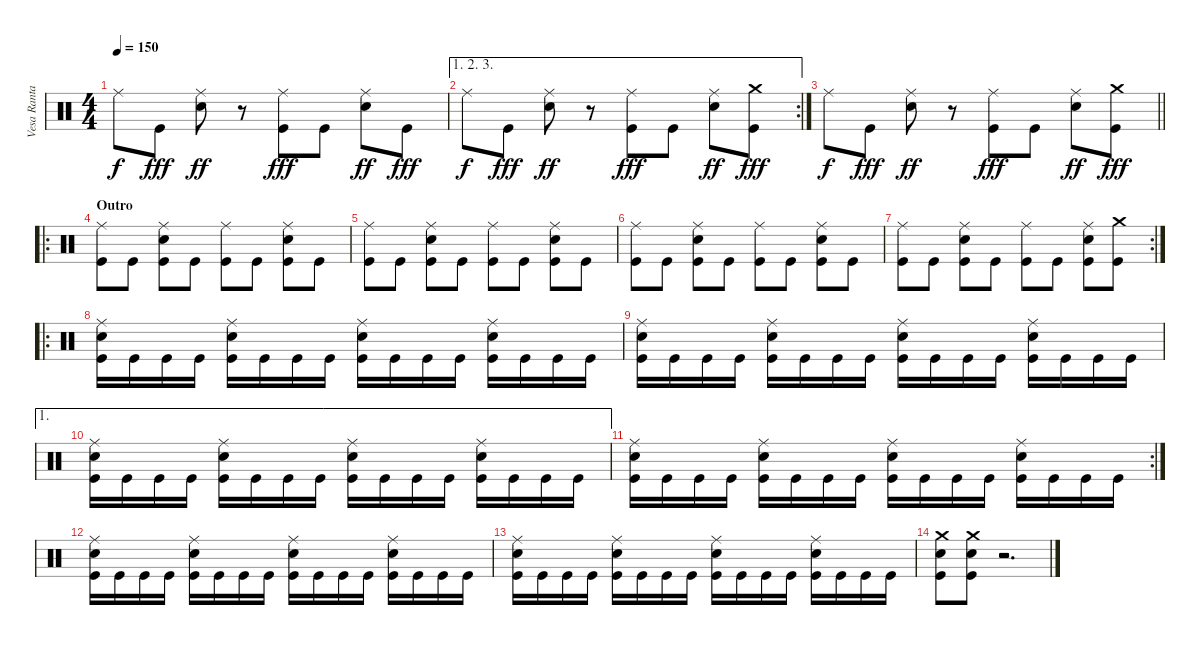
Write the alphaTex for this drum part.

\track ("Vesa Ranta" "Vesa Ranta") {instrument percussion}
\staff {score}
\articulation defaults
\ts (4 4)
\tempo 150
\clef neutral
\ks c "Ride (middle)".8{dy f} "Kick (hit)".8{dy fff}
("Ride (middle)" "Snare (hit) 2").8{dy ff} r.8 ("Ride (middle)" "Kick (hit)").8{dy fff} "Kick (hit)".8 ("Ride (middle)" "Snare (hit) 2").8{dy ff} "Kick (hit)".8{dy fff} |
\ae (1 2 3)
\rc 2 "Ride (middle)".8{dy f} "Kick (hit)".8{dy fff}
("Ride (middle)" "Snare (hit) 2").8{dy ff} r.8 ("Ride (middle)" "Kick (hit)").8{dy fff} "Kick (hit)".8 ("Ride (middle)" "Snare (hit) 2").8{dy ff} ("Crash medium (hit)" "Kick (hit)").8{dy fff} |
\barLineRight lightlight "Ride (middle)".8{dy f} "Kick (hit)".8{dy fff}
("Ride (middle)" "Snare (hit) 2").8{dy ff} r.8 ("Ride (middle)" "Kick (hit)").8{dy fff} "Kick (hit)".8 ("Ride (middle)" "Snare (hit) 2").8{dy ff} ("Crash medium (hit)" "Kick (hit)").8{dy fff} |
\ro
\section ("" "Outro")
("Ride (middle)" "Kick (hit)").8 "Kick (hit)".8 ("Ride (middle)" "Snare (hit) 2" "Kick (hit)").8 "Kick (hit)".8 ("Ride (middle)" "Kick (hit)").8 "Kick (hit)".8 ("Ride (middle)" "Snare (hit) 2" "Kick (hit)").8 "Kick (hit)".8 |
("Ride (middle)" "Kick (hit)").8 "Kick (hit)".8 ("Ride (middle)" "Snare (hit) 2" "Kick (hit)").8 "Kick (hit)".8 ("Ride (middle)" "Kick (hit)").8 "Kick (hit)".8 ("Ride (middle)" "Snare (hit) 2" "Kick (hit)").8 "Kick (hit)".8 |
("Ride (middle)" "Kick (hit)").8 "Kick (hit)".8 ("Ride (middle)" "Snare (hit) 2" "Kick (hit)").8 "Kick (hit)".8 ("Ride (middle)" "Kick (hit)").8 "Kick (hit)".8 ("Ride (middle)" "Snare (hit) 2" "Kick (hit)").8 "Kick (hit)".8 |
\rc 2
("Ride (middle)" "Kick (hit)").8 "Kick (hit)".8 ("Ride (middle)" "Snare (hit) 2" "Kick (hit)").8 "Kick (hit)".8 ("Ride (middle)" "Kick (hit)").8 "Kick (hit)".8 ("Ride (middle)" "Snare (hit) 2" "Kick (hit)").8 ("Crash medium (hit)" "Kick (hit)").8 |
\ro
("Ride (middle)" "Snare (hit) 2" "Kick (hit)").16 "Kick (hit)".16 "Kick (hit)".16 "Kick (hit)".16 ("Ride (middle)" "Snare (hit) 2" "Kick (hit)").16 "Kick (hit)".16 "Kick (hit)".16 "Kick (hit)".16 ("Ride (middle)" "Snare (hit) 2" "Kick (hit)").16 "Kick (hit)".16 "Kick (hit)".16 "Kick (hit)".16 ("Ride (middle)" "Snare (hit) 2" "Kick (hit)").16 "Kick (hit)".16 "Kick (hit)".16 "Kick (hit)".16 |
("Ride (middle)" "Snare (hit) 2" "Kick (hit)").16 "Kick (hit)".16 "Kick (hit)".16 "Kick (hit)".16 ("Ride (middle)" "Snare (hit) 2" "Kick (hit)").16 "Kick (hit)".16 "Kick (hit)".16 "Kick (hit)".16 ("Ride (middle)" "Snare (hit) 2" "Kick (hit)").16 "Kick (hit)".16 "Kick (hit)".16 "Kick (hit)".16 ("Ride (middle)" "Snare (hit) 2" "Kick (hit)").16 "Kick (hit)".16 "Kick (hit)".16 "Kick (hit)".16 |
\ae 1
("Ride (middle)" "Snare (hit) 2" "Kick (hit)").16 "Kick (hit)".16 "Kick (hit)".16 "Kick (hit)".16 ("Ride (middle)" "Snare (hit) 2" "Kick (hit)").16 "Kick (hit)".16 "Kick (hit)".16 "Kick (hit)".16 ("Ride (middle)" "Snare (hit) 2" "Kick (hit)").16 "Kick (hit)".16 "Kick (hit)".16 "Kick (hit)".16 ("Ride (middle)" "Snare (hit) 2" "Kick (hit)").16 "Kick (hit)".16 "Kick (hit)".16 "Kick (hit)".16 |
\rc 2
("Ride (middle)" "Snare (hit) 2" "Kick (hit)").16 "Kick (hit)".16 "Kick (hit)".16 "Kick (hit)".16 ("Ride (middle)" "Snare (hit) 2" "Kick (hit)").16 "Kick (hit)".16 "Kick (hit)".16 "Kick (hit)".16 ("Ride (middle)" "Snare (hit) 2" "Kick (hit)").16 "Kick (hit)".16 "Kick (hit)".16 "Kick (hit)".16 ("Ride (middle)" "Snare (hit) 2" "Kick (hit)").16 "Kick (hit)".16 "Kick (hit)".16 "Kick (hit)".16 |
("Ride (middle)" "Snare (hit) 2" "Kick (hit)").16 "Kick (hit)".16 "Kick (hit)".16 "Kick (hit)".16 ("Ride (middle)" "Snare (hit) 2" "Kick (hit)").16 "Kick (hit)".16 "Kick (hit)".16 "Kick (hit)".16 ("Ride (middle)" "Snare (hit) 2" "Kick (hit)").16 "Kick (hit)".16 "Kick (hit)".16 "Kick (hit)".16 ("Ride (middle)" "Snare (hit) 2" "Kick (hit)").16 "Kick (hit)".16 "Kick (hit)".16 "Kick (hit)".16 |
("Ride (middle)" "Snare (hit) 2" "Kick (hit)").16 "Kick (hit)".16 "Kick (hit)".16 "Kick (hit)".16 ("Ride (middle)" "Snare (hit) 2" "Kick (hit)").16 "Kick (hit)".16 "Kick (hit)".16 "Kick (hit)".16 ("Ride (middle)" "Snare (hit) 2" "Kick (hit)").16 "Kick (hit)".16 "Kick (hit)".16 "Kick (hit)".16 ("Ride (middle)" "Snare (hit) 2" "Kick (hit)").16 "Kick (hit)".16 "Kick (hit)".16 "Kick (hit)".16 |
("Crash medium (hit)" "Snare (hit) 2" "Kick (hit)").8 ("Crash medium (hit)" "Snare (hit) 2" "Kick (hit)").8 r.2{d}
